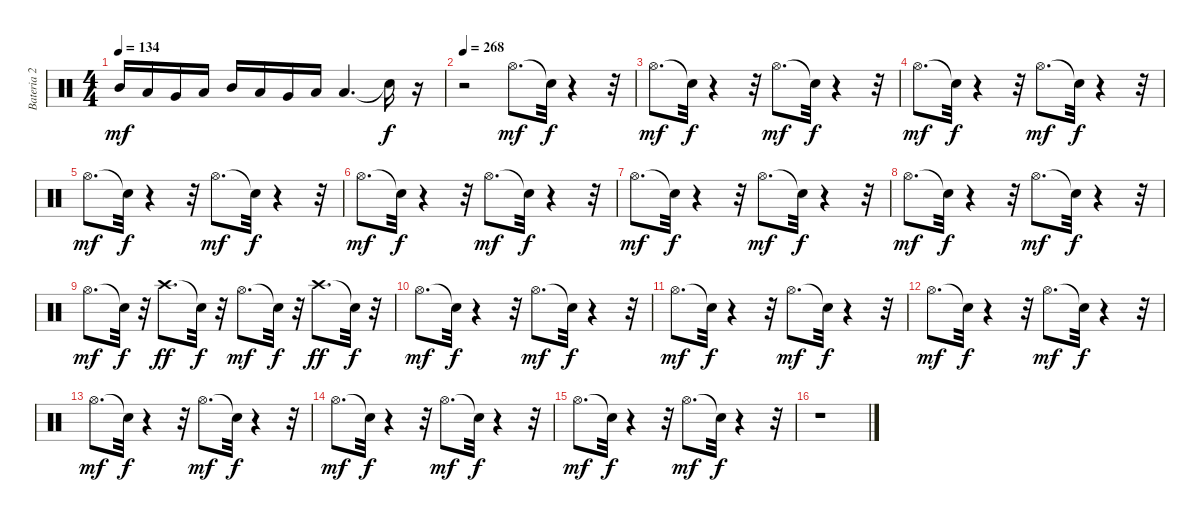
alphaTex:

\track ("Bateria 2" "Bateria 2") {instrument percussion}
\staff {score}
\articulation defaults
\ts (4 4)
\tempo 134
\clef neutral
\ks c "Mid Tom (hit)".16{dy mf} "Low Tom (hit)".16 "Very Low Tom (hit)".16 "Low Floor Tom (hit)".16 "Mid Tom (hit)".16 "Low Tom (hit)".16 "Very Low Tom (hit)".16 "Low Floor Tom (hit)".16 "Low Floor Tom (hit)".4{d} "Snare (hit)"{t}.16{dy f}
r.16 |
\tempo 268
r.2 "Hi-Hat (open)".8{d dy mf} "Snare (hit)"{t}.32{dy f} r.4 r.32 |
"Hi-Hat (open)".8{d dy mf} "Snare (hit)"{t}.32{dy f} r.4 r.32 "Hi-Hat (open)".8{d dy mf} "Snare (hit)"{t}.32{dy f} r.4 r.32 |
"Hi-Hat (open)".8{d dy mf} "Snare (hit)"{t}.32{dy f} r.4 r.32 "Hi-Hat (open)".8{d dy mf} "Snare (hit)"{t}.32{dy f} r.4 r.32 |
"Hi-Hat (open)".8{d dy mf} "Snare (hit)"{t}.32{dy f} r.4 r.32 "Hi-Hat (open)".8{d dy mf} "Snare (hit)"{t}.32{dy f} r.4 r.32 |
"Hi-Hat (open)".8{d dy mf} "Snare (hit)"{t}.32{dy f} r.4 r.32 "Hi-Hat (open)".8{d dy mf} "Snare (hit)"{t}.32{dy f} r.4 r.32 |
"Hi-Hat (open)".8{d dy mf} "Snare (hit)"{t}.32{dy f} r.4 r.32 "Hi-Hat (open)".8{d dy mf} "Snare (hit)"{t}.32{dy f} r.4 r.32 |
"Hi-Hat (open)".8{d dy mf} "Snare (hit)"{t}.32{dy f} r.4 r.32 "Hi-Hat (open)".8{d dy mf} "Snare (hit)"{t}.32{dy f} r.4 r.32 |
"Hi-Hat (open)".8{d dy mf} "Snare (hit)"{t}.32{dy f} r.32 "Crash high (hit)".8{d dy ff} "Snare (hit)"{t}.32{dy f} r.32 "Hi-Hat (open)".8{d dy mf} "Snare (hit)"{t}.32{dy f} r.32 "Crash high (hit)".8{d dy ff} "Snare (hit)"{t}.32{dy f} r.32 |
"Hi-Hat (open)".8{d dy mf} "Snare (hit)"{t}.32{dy f} r.4 r.32 "Hi-Hat (open)".8{d dy mf} "Snare (hit)"{t}.32{dy f} r.4 r.32 |
"Hi-Hat (open)".8{d dy mf} "Snare (hit)"{t}.32{dy f} r.4 r.32 "Hi-Hat (open)".8{d dy mf} "Snare (hit)"{t}.32{dy f} r.4 r.32 |
"Hi-Hat (open)".8{d dy mf} "Snare (hit)"{t}.32{dy f} r.4 r.32 "Hi-Hat (open)".8{d dy mf} "Snare (hit)"{t}.32{dy f} r.4 r.32 |
"Hi-Hat (open)".8{d dy mf} "Snare (hit)"{t}.32{dy f} r.4 r.32 "Hi-Hat (open)".8{d dy mf} "Snare (hit)"{t}.32{dy f} r.4 r.32 |
"Hi-Hat (open)".8{d dy mf} "Snare (hit)"{t}.32{dy f} r.4 r.32 "Hi-Hat (open)".8{d dy mf} "Snare (hit)"{t}.32{dy f} r.4 r.32 |
"Hi-Hat (open)".8{d dy mf} "Snare (hit)"{t}.32{dy f} r.4 r.32 "Hi-Hat (open)".8{d dy mf} "Snare (hit)"{t}.32{dy f} r.4 r.32 |
r.1
